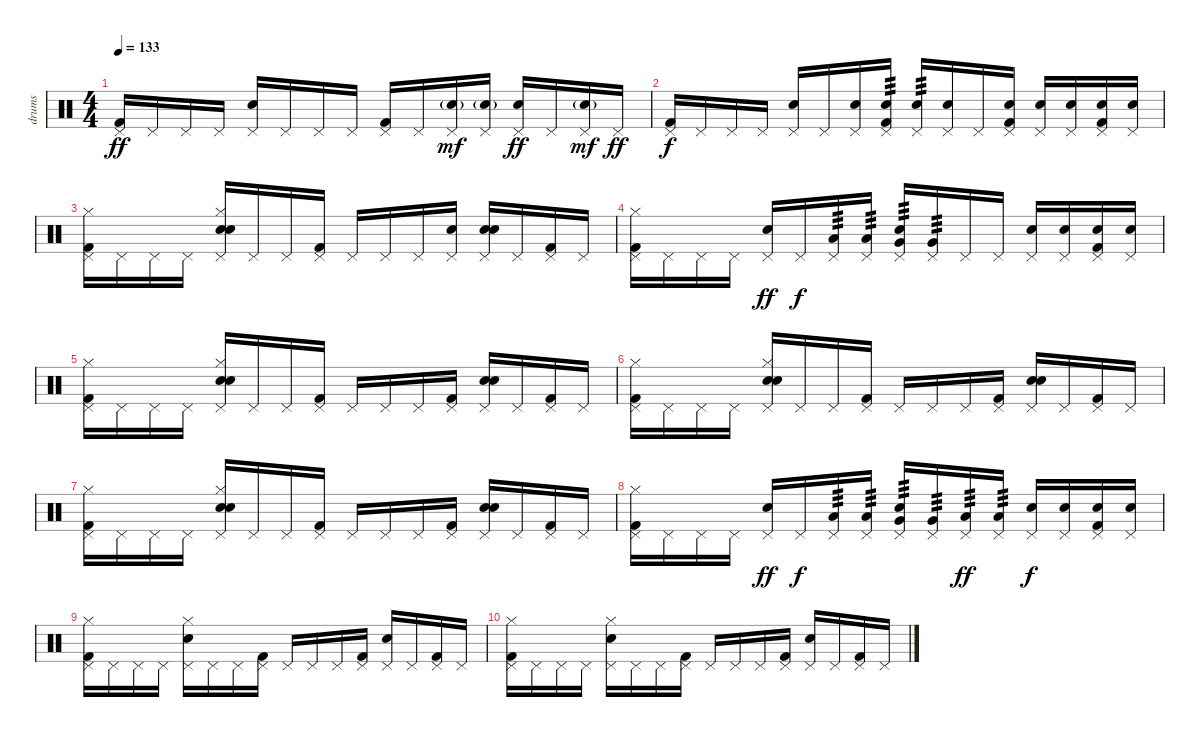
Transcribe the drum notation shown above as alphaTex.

\track ("drums" "drums") {instrument percussion}
\staff {score}
\articulation defaults
\ts (4 4)
\tempo 133
\clef neutral
\ks c
("Kick (hit) 2" "Pedal Hi-Hat (hit)").16{dy ff} "Pedal Hi-Hat (hit)".16 "Pedal Hi-Hat (hit)".16 "Pedal Hi-Hat (hit)".16 ("Snare (hit) 2" "Pedal Hi-Hat (hit)").16 "Pedal Hi-Hat (hit)".16 "Pedal Hi-Hat (hit)".16 "Pedal Hi-Hat (hit)".16 ("Kick (hit) 2" "Pedal Hi-Hat (hit)").16 "Pedal Hi-Hat (hit)".16 ("Pedal Hi-Hat (hit)" "Electric Snare (hit)"{g}).16{dy mf} ("Pedal Hi-Hat (hit)" "Electric Snare (hit)"{g}).16 ("Snare (hit) 2" "Pedal Hi-Hat (hit)").16{dy ff} "Pedal Hi-Hat (hit)".16 ("Pedal Hi-Hat (hit)" "Electric Snare (hit)"{g}).16{dy mf} "Pedal Hi-Hat (hit)".16{dy ff} |
("Kick (hit) 2" "Pedal Hi-Hat (hit)").16{dy f} "Pedal Hi-Hat (hit)".16 "Pedal Hi-Hat (hit)".16 "Pedal Hi-Hat (hit)".16 ("Snare (hit) 2" "Pedal Hi-Hat (hit)").16 "Pedal Hi-Hat (hit)".16 ("Snare (hit) 2" "Pedal Hi-Hat (hit)").16 ("Snare (hit) 2" "Kick (hit) 2" "Pedal Hi-Hat (hit)").16{tp 3} ("Snare (hit) 2" "Pedal Hi-Hat (hit)").16{tp 3} ("Snare (hit) 2" "Pedal Hi-Hat (hit)").16 "Pedal Hi-Hat (hit)".16 ("Snare (hit) 2" "Kick (hit) 2" "Pedal Hi-Hat (hit)").16 ("Snare (hit) 2" "Pedal Hi-Hat (hit)").16 ("Snare (hit) 2" "Pedal Hi-Hat (hit)").16 ("Snare (hit) 2" "Kick (hit) 2" "Pedal Hi-Hat (hit)").16 ("Snare (hit) 2" "Pedal Hi-Hat (hit)").16 |
("Kick (hit) 2" "Hi-Hat (closed)" "Pedal Hi-Hat (hit)").16 "Pedal Hi-Hat (hit)".16 "Pedal Hi-Hat (hit)".16 "Pedal Hi-Hat (hit)".16 ("Snare (hit) 2" "Hi-Hat (closed)" "Pedal Hi-Hat (hit)" "Hand Clap (hit)").16 "Pedal Hi-Hat (hit)".16 "Pedal Hi-Hat (hit)".16 ("Kick (hit) 2" "Pedal Hi-Hat (hit)").16 "Pedal Hi-Hat (hit)".16 "Pedal Hi-Hat (hit)".16 "Pedal Hi-Hat (hit)".16 ("Pedal Hi-Hat (hit)" "Hand Clap (hit)").16 ("Snare (hit) 2" "Pedal Hi-Hat (hit)" "Hand Clap (hit)").16 "Pedal Hi-Hat (hit)".16 ("Kick (hit) 2" "Pedal Hi-Hat (hit)").16 "Pedal Hi-Hat (hit)".16 |
("Kick (hit) 2" "Hi-Hat (closed)" "Pedal Hi-Hat (hit)").16 "Pedal Hi-Hat (hit)".16 "Pedal Hi-Hat (hit)".16 "Pedal Hi-Hat (hit)".16 ("Snare (hit) 2" "Pedal Hi-Hat (hit)").16{dy ff} "Pedal Hi-Hat (hit)".16{dy f} ("Low Tom (hit)" "Pedal Hi-Hat (hit)").16{tp 3} ("Low Tom (hit)" "Pedal Hi-Hat (hit)").16{tp 3} ("Snare (hit) 2" "Very Low Tom (hit)" "Pedal Hi-Hat (hit)").16{tp 3} ("Very Low Tom (hit)" "Pedal Hi-Hat (hit)").16{tp 3} "Pedal Hi-Hat (hit)".16 "Pedal Hi-Hat (hit)".16 ("Snare (hit) 2" "Pedal Hi-Hat (hit)").16 ("Snare (hit) 2" "Pedal Hi-Hat (hit)").16 ("Snare (hit) 2" "Kick (hit) 2" "Pedal Hi-Hat (hit)").16 ("Snare (hit) 2" "Pedal Hi-Hat (hit)").16 |
("Kick (hit) 2" "Hi-Hat (closed)" "Pedal Hi-Hat (hit)").16 "Pedal Hi-Hat (hit)".16 "Pedal Hi-Hat (hit)".16 "Pedal Hi-Hat (hit)".16 ("Snare (hit) 2" "Hi-Hat (closed)" "Pedal Hi-Hat (hit)" "Hand Clap (hit)").16 "Pedal Hi-Hat (hit)".16 "Pedal Hi-Hat (hit)".16 ("Kick (hit) 2" "Pedal Hi-Hat (hit)").16 "Pedal Hi-Hat (hit)".16 "Pedal Hi-Hat (hit)".16 "Pedal Hi-Hat (hit)".16 ("Kick (hit) 2" "Pedal Hi-Hat (hit)").16 ("Snare (hit) 2" "Pedal Hi-Hat (hit)" "Hand Clap (hit)").16 "Pedal Hi-Hat (hit)".16 ("Kick (hit) 2" "Pedal Hi-Hat (hit)").16 "Pedal Hi-Hat (hit)".16 |
("Kick (hit) 2" "Hi-Hat (closed)" "Pedal Hi-Hat (hit)").16 "Pedal Hi-Hat (hit)".16 "Pedal Hi-Hat (hit)".16 "Pedal Hi-Hat (hit)".16 ("Snare (hit) 2" "Hi-Hat (closed)" "Pedal Hi-Hat (hit)" "Hand Clap (hit)").16 "Pedal Hi-Hat (hit)".16 "Pedal Hi-Hat (hit)".16 ("Kick (hit) 2" "Pedal Hi-Hat (hit)").16 "Pedal Hi-Hat (hit)".16 "Pedal Hi-Hat (hit)".16 "Pedal Hi-Hat (hit)".16 ("Kick (hit) 2" "Pedal Hi-Hat (hit)").16 ("Snare (hit) 2" "Pedal Hi-Hat (hit)" "Hand Clap (hit)").16 "Pedal Hi-Hat (hit)".16 ("Kick (hit) 2" "Pedal Hi-Hat (hit)").16 "Pedal Hi-Hat (hit)".16 |
("Kick (hit) 2" "Hi-Hat (closed)" "Pedal Hi-Hat (hit)").16 "Pedal Hi-Hat (hit)".16 "Pedal Hi-Hat (hit)".16 "Pedal Hi-Hat (hit)".16 ("Snare (hit) 2" "Hi-Hat (closed)" "Pedal Hi-Hat (hit)" "Hand Clap (hit)").16 "Pedal Hi-Hat (hit)".16 "Pedal Hi-Hat (hit)".16 ("Kick (hit) 2" "Pedal Hi-Hat (hit)").16 "Pedal Hi-Hat (hit)".16 "Pedal Hi-Hat (hit)".16 "Pedal Hi-Hat (hit)".16 ("Kick (hit) 2" "Pedal Hi-Hat (hit)").16 ("Snare (hit) 2" "Pedal Hi-Hat (hit)" "Hand Clap (hit)").16 "Pedal Hi-Hat (hit)".16 ("Kick (hit) 2" "Pedal Hi-Hat (hit)").16 "Pedal Hi-Hat (hit)".16 |
("Kick (hit) 2" "Hi-Hat (closed)" "Pedal Hi-Hat (hit)").16 "Pedal Hi-Hat (hit)".16 "Pedal Hi-Hat (hit)".16 "Pedal Hi-Hat (hit)".16 ("Snare (hit) 2" "Pedal Hi-Hat (hit)").16{dy ff} "Pedal Hi-Hat (hit)".16{dy f} ("Low Tom (hit)" "Pedal Hi-Hat (hit)").16{tp 3} ("Low Tom (hit)" "Pedal Hi-Hat (hit)").16{tp 3} ("Snare (hit) 2" "Very Low Tom (hit)" "Pedal Hi-Hat (hit)").16{tp 3} ("Very Low Tom (hit)" "Pedal Hi-Hat (hit)").16{tp 3} ("Low Floor Tom (hit)" "Pedal Hi-Hat (hit)").16{tp 3 dy ff} ("Low Floor Tom (hit)" "Pedal Hi-Hat (hit)").16{tp 3} ("Snare (hit) 2" "Pedal Hi-Hat (hit)").16{dy f} ("Snare (hit) 2" "Pedal Hi-Hat (hit)").16 ("Snare (hit) 2" "Kick (hit) 2" "Pedal Hi-Hat (hit)").16 ("Snare (hit) 2" "Pedal Hi-Hat (hit)").16 |
("Kick (hit) 2" "Hi-Hat (closed)" "Pedal Hi-Hat (hit)").16 "Pedal Hi-Hat (hit)".16 "Pedal Hi-Hat (hit)".16 "Pedal Hi-Hat (hit)".16 ("Snare (hit) 2" "Hi-Hat (closed)" "Pedal Hi-Hat (hit)").16 "Pedal Hi-Hat (hit)".16 "Pedal Hi-Hat (hit)".16 ("Kick (hit) 2" "Pedal Hi-Hat (hit)").16 "Pedal Hi-Hat (hit)".16 "Pedal Hi-Hat (hit)".16 "Pedal Hi-Hat (hit)".16 ("Kick (hit) 2" "Pedal Hi-Hat (hit)").16 ("Snare (hit) 2" "Pedal Hi-Hat (hit)").16 "Pedal Hi-Hat (hit)".16 ("Kick (hit) 2" "Pedal Hi-Hat (hit)").16 "Pedal Hi-Hat (hit)".16 |
("Kick (hit) 2" "Hi-Hat (closed)" "Pedal Hi-Hat (hit)").16 "Pedal Hi-Hat (hit)".16 "Pedal Hi-Hat (hit)".16 "Pedal Hi-Hat (hit)".16 ("Snare (hit) 2" "Hi-Hat (closed)" "Pedal Hi-Hat (hit)").16 "Pedal Hi-Hat (hit)".16 "Pedal Hi-Hat (hit)".16 ("Kick (hit) 2" "Pedal Hi-Hat (hit)").16 "Pedal Hi-Hat (hit)".16 "Pedal Hi-Hat (hit)".16 "Pedal Hi-Hat (hit)".16 ("Kick (hit) 2" "Pedal Hi-Hat (hit)").16 ("Snare (hit) 2" "Pedal Hi-Hat (hit)").16 "Pedal Hi-Hat (hit)".16 ("Kick (hit) 2" "Pedal Hi-Hat (hit)").16 "Pedal Hi-Hat (hit)".16
